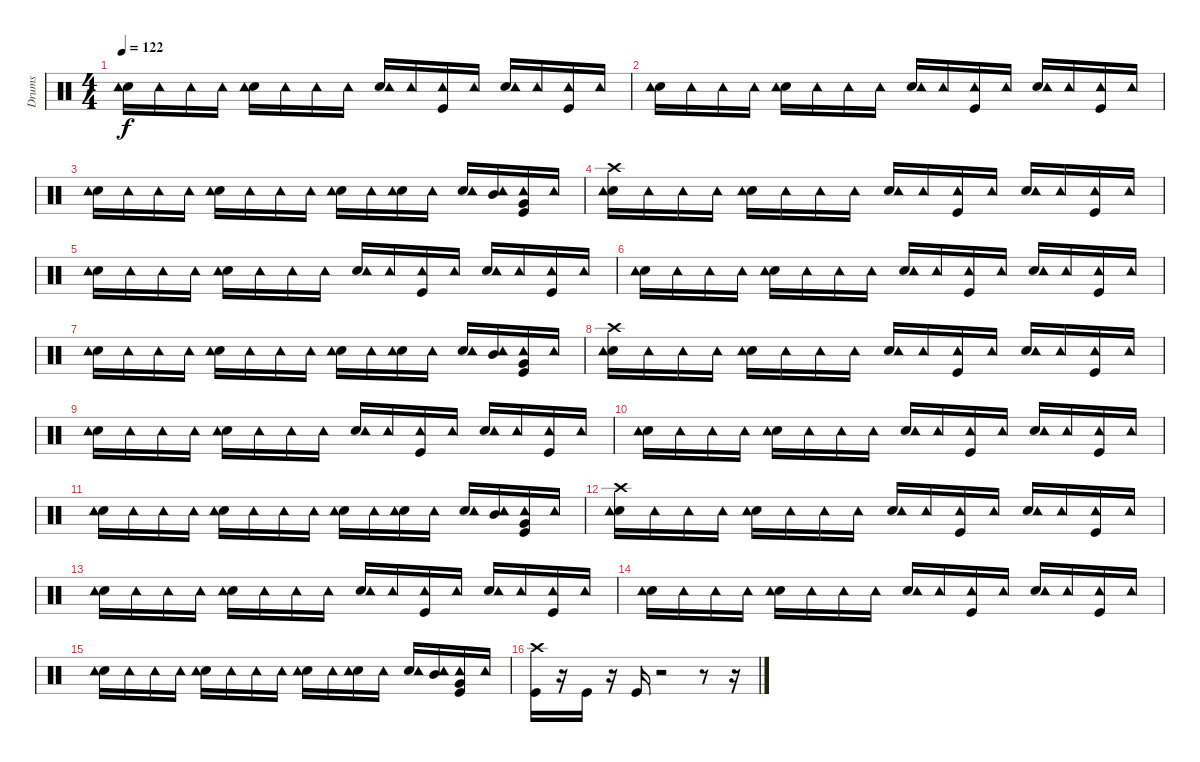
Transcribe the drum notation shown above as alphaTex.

\track ("Drums               " "Drums     ") {instrument percussion}
\staff {score}
\articulation defaults
\ts (4 4)
\tempo 122
\clef neutral
\ks c
("Electric Snare (hit)" "Tambourine (hit)").16{dy f} "Tambourine (hit)".16 "Tambourine (hit)".16 "Tambourine (hit)".16 ("Electric Snare (hit)" "Tambourine (hit)").16 "Tambourine (hit)".16 "Tambourine (hit)".16 "Tambourine (hit)".16 ("Electric Snare (hit)" "Tambourine (hit)").16 "Tambourine (hit)".16 ("Kick (hit)" "Tambourine (hit)").16 "Tambourine (hit)".16 ("Electric Snare (hit)" "Tambourine (hit)").16 "Tambourine (hit)".16 ("Kick (hit)" "Tambourine (hit)").16 "Tambourine (hit)".16 |
("Electric Snare (hit)" "Tambourine (hit)").16 "Tambourine (hit)".16 "Tambourine (hit)".16 "Tambourine (hit)".16 ("Electric Snare (hit)" "Tambourine (hit)").16 "Tambourine (hit)".16 "Tambourine (hit)".16 "Tambourine (hit)".16 ("Electric Snare (hit)" "Tambourine (hit)").16 "Tambourine (hit)".16 ("Kick (hit)" "Tambourine (hit)").16 "Tambourine (hit)".16 ("Electric Snare (hit)" "Tambourine (hit)").16 "Tambourine (hit)".16 ("Kick (hit)" "Tambourine (hit)").16 "Tambourine (hit)".16 |
("Electric Snare (hit)" "Tambourine (hit)").16 "Tambourine (hit)".16 "Tambourine (hit)".16 "Tambourine (hit)".16 ("Electric Snare (hit)" "Tambourine (hit)").16 "Tambourine (hit)".16 "Tambourine (hit)".16 "Tambourine (hit)".16 ("Electric Snare (hit)" "Tambourine (hit)").16 "Tambourine (hit)".16 ("Electric Snare (hit)" "Tambourine (hit)").16 "Tambourine (hit)".16 ("Electric Snare (hit)" "Tambourine (hit)").16 ("Mid Tom (hit)" "Tambourine (hit)").16 ("Kick (hit)" "Very Low Tom (hit)" "Tambourine (hit)").16 "Tambourine (hit)".16 |
("Electric Snare (hit)" "Crash high (hit)" "Tambourine (hit)").16 "Tambourine (hit)".16 "Tambourine (hit)".16 "Tambourine (hit)".16 ("Electric Snare (hit)" "Tambourine (hit)").16 "Tambourine (hit)".16 "Tambourine (hit)".16 "Tambourine (hit)".16 ("Electric Snare (hit)" "Tambourine (hit)").16 "Tambourine (hit)".16 ("Kick (hit)" "Tambourine (hit)").16 "Tambourine (hit)".16 ("Electric Snare (hit)" "Tambourine (hit)").16 "Tambourine (hit)".16 ("Kick (hit)" "Tambourine (hit)").16 "Tambourine (hit)".16 |
("Electric Snare (hit)" "Tambourine (hit)").16 "Tambourine (hit)".16 "Tambourine (hit)".16 "Tambourine (hit)".16 ("Electric Snare (hit)" "Tambourine (hit)").16 "Tambourine (hit)".16 "Tambourine (hit)".16 "Tambourine (hit)".16 ("Electric Snare (hit)" "Tambourine (hit)").16 "Tambourine (hit)".16 ("Kick (hit)" "Tambourine (hit)").16 "Tambourine (hit)".16 ("Electric Snare (hit)" "Tambourine (hit)").16 "Tambourine (hit)".16 ("Kick (hit)" "Tambourine (hit)").16 "Tambourine (hit)".16 |
("Electric Snare (hit)" "Tambourine (hit)").16 "Tambourine (hit)".16 "Tambourine (hit)".16 "Tambourine (hit)".16 ("Electric Snare (hit)" "Tambourine (hit)").16 "Tambourine (hit)".16 "Tambourine (hit)".16 "Tambourine (hit)".16 ("Electric Snare (hit)" "Tambourine (hit)").16 "Tambourine (hit)".16 ("Kick (hit)" "Tambourine (hit)").16 "Tambourine (hit)".16 ("Electric Snare (hit)" "Tambourine (hit)").16 "Tambourine (hit)".16 ("Kick (hit)" "Tambourine (hit)").16 "Tambourine (hit)".16 |
("Electric Snare (hit)" "Tambourine (hit)").16 "Tambourine (hit)".16 "Tambourine (hit)".16 "Tambourine (hit)".16 ("Electric Snare (hit)" "Tambourine (hit)").16 "Tambourine (hit)".16 "Tambourine (hit)".16 "Tambourine (hit)".16 ("Electric Snare (hit)" "Tambourine (hit)").16 "Tambourine (hit)".16 ("Electric Snare (hit)" "Tambourine (hit)").16 "Tambourine (hit)".16 ("Electric Snare (hit)" "Tambourine (hit)").16 ("Mid Tom (hit)" "Tambourine (hit)").16 ("Kick (hit)" "Very Low Tom (hit)" "Tambourine (hit)").16 "Tambourine (hit)".16 |
("Electric Snare (hit)" "Crash high (hit)" "Tambourine (hit)").16 "Tambourine (hit)".16 "Tambourine (hit)".16 "Tambourine (hit)".16 ("Electric Snare (hit)" "Tambourine (hit)").16 "Tambourine (hit)".16 "Tambourine (hit)".16 "Tambourine (hit)".16 ("Electric Snare (hit)" "Tambourine (hit)").16 "Tambourine (hit)".16 ("Kick (hit)" "Tambourine (hit)").16 "Tambourine (hit)".16 ("Electric Snare (hit)" "Tambourine (hit)").16 "Tambourine (hit)".16 ("Kick (hit)" "Tambourine (hit)").16 "Tambourine (hit)".16 |
("Electric Snare (hit)" "Tambourine (hit)").16 "Tambourine (hit)".16 "Tambourine (hit)".16 "Tambourine (hit)".16 ("Electric Snare (hit)" "Tambourine (hit)").16 "Tambourine (hit)".16 "Tambourine (hit)".16 "Tambourine (hit)".16 ("Electric Snare (hit)" "Tambourine (hit)").16 "Tambourine (hit)".16 ("Kick (hit)" "Tambourine (hit)").16 "Tambourine (hit)".16 ("Electric Snare (hit)" "Tambourine (hit)").16 "Tambourine (hit)".16 ("Kick (hit)" "Tambourine (hit)").16 "Tambourine (hit)".16 |
("Electric Snare (hit)" "Tambourine (hit)").16 "Tambourine (hit)".16 "Tambourine (hit)".16 "Tambourine (hit)".16 ("Electric Snare (hit)" "Tambourine (hit)").16 "Tambourine (hit)".16 "Tambourine (hit)".16 "Tambourine (hit)".16 ("Electric Snare (hit)" "Tambourine (hit)").16 "Tambourine (hit)".16 ("Kick (hit)" "Tambourine (hit)").16 "Tambourine (hit)".16 ("Electric Snare (hit)" "Tambourine (hit)").16 "Tambourine (hit)".16 ("Kick (hit)" "Tambourine (hit)").16 "Tambourine (hit)".16 |
("Electric Snare (hit)" "Tambourine (hit)").16 "Tambourine (hit)".16 "Tambourine (hit)".16 "Tambourine (hit)".16 ("Electric Snare (hit)" "Tambourine (hit)").16 "Tambourine (hit)".16 "Tambourine (hit)".16 "Tambourine (hit)".16 ("Electric Snare (hit)" "Tambourine (hit)").16 "Tambourine (hit)".16 ("Electric Snare (hit)" "Tambourine (hit)").16 "Tambourine (hit)".16 ("Electric Snare (hit)" "Tambourine (hit)").16 ("Mid Tom (hit)" "Tambourine (hit)").16 ("Kick (hit)" "Very Low Tom (hit)" "Tambourine (hit)").16 "Tambourine (hit)".16 |
("Electric Snare (hit)" "Crash high (hit)" "Tambourine (hit)").16 "Tambourine (hit)".16 "Tambourine (hit)".16 "Tambourine (hit)".16 ("Electric Snare (hit)" "Tambourine (hit)").16 "Tambourine (hit)".16 "Tambourine (hit)".16 "Tambourine (hit)".16 ("Electric Snare (hit)" "Tambourine (hit)").16 "Tambourine (hit)".16 ("Kick (hit)" "Tambourine (hit)").16 "Tambourine (hit)".16 ("Electric Snare (hit)" "Tambourine (hit)").16 "Tambourine (hit)".16 ("Kick (hit)" "Tambourine (hit)").16 "Tambourine (hit)".16 |
("Electric Snare (hit)" "Tambourine (hit)").16 "Tambourine (hit)".16 "Tambourine (hit)".16 "Tambourine (hit)".16 ("Electric Snare (hit)" "Tambourine (hit)").16 "Tambourine (hit)".16 "Tambourine (hit)".16 "Tambourine (hit)".16 ("Electric Snare (hit)" "Tambourine (hit)").16 "Tambourine (hit)".16 ("Kick (hit)" "Tambourine (hit)").16 "Tambourine (hit)".16 ("Electric Snare (hit)" "Tambourine (hit)").16 "Tambourine (hit)".16 ("Kick (hit)" "Tambourine (hit)").16 "Tambourine (hit)".16 |
("Electric Snare (hit)" "Tambourine (hit)").16 "Tambourine (hit)".16 "Tambourine (hit)".16 "Tambourine (hit)".16 ("Electric Snare (hit)" "Tambourine (hit)").16 "Tambourine (hit)".16 "Tambourine (hit)".16 "Tambourine (hit)".16 ("Electric Snare (hit)" "Tambourine (hit)").16 "Tambourine (hit)".16 ("Kick (hit)" "Tambourine (hit)").16 "Tambourine (hit)".16 ("Electric Snare (hit)" "Tambourine (hit)").16 "Tambourine (hit)".16 ("Kick (hit)" "Tambourine (hit)").16 "Tambourine (hit)".16 |
("Electric Snare (hit)" "Tambourine (hit)").16 "Tambourine (hit)".16 "Tambourine (hit)".16 "Tambourine (hit)".16 ("Electric Snare (hit)" "Tambourine (hit)").16 "Tambourine (hit)".16 "Tambourine (hit)".16 "Tambourine (hit)".16 ("Electric Snare (hit)" "Tambourine (hit)").16 "Tambourine (hit)".16 ("Electric Snare (hit)" "Tambourine (hit)").16 "Tambourine (hit)".16 ("Electric Snare (hit)" "Tambourine (hit)").16 ("Mid Tom (hit)" "Tambourine (hit)").16 ("Kick (hit)" "Very Low Tom (hit)" "Tambourine (hit)").16 "Tambourine (hit)".16 |
("Kick (hit)" "Crash high (hit)").16 r.16 "Kick (hit)".16 r.16 "Kick (hit)".16 r.2 r.8 r.16
